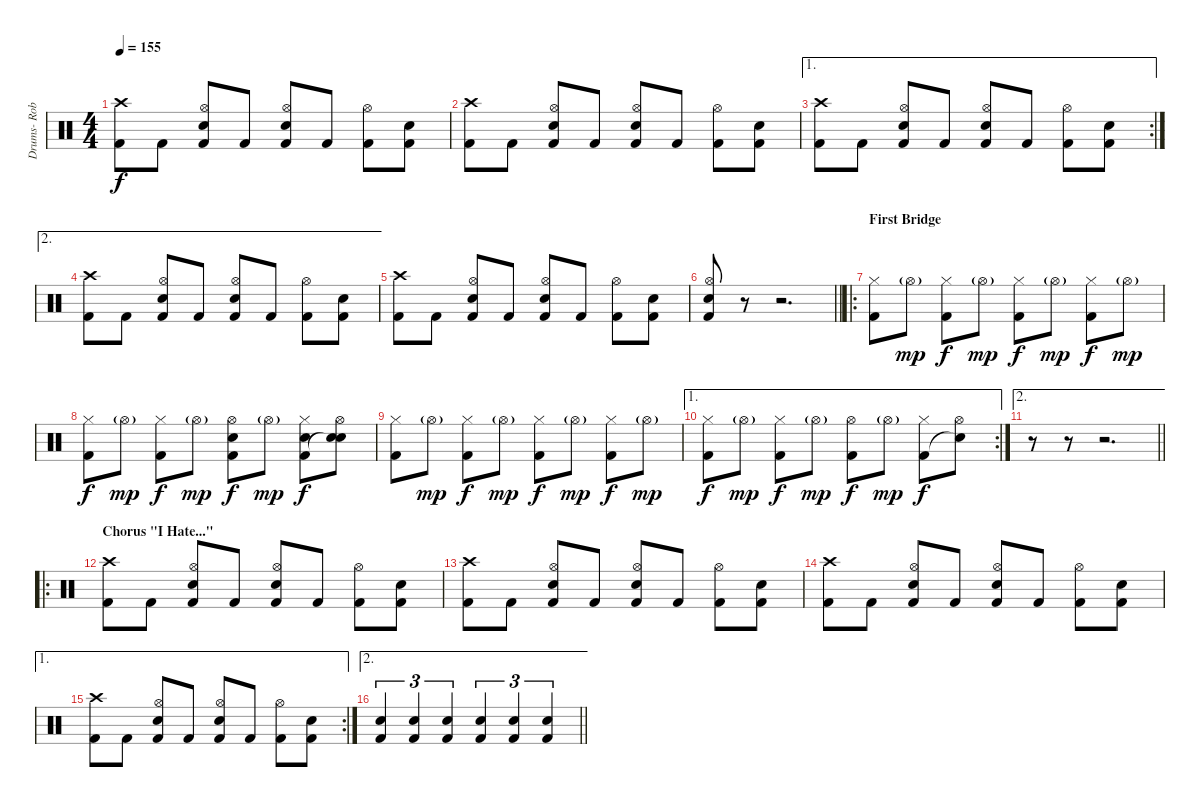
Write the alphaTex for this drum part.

\track ("Drums- Rob Rolfe" "Drums- Rob") {instrument percussion}
\staff {score}
\articulation defaults
\ts (4 4)
\tempo 155
\clef neutral
\ks c
("Crash high (hit)" "Kick (hit) 2").8{dy f} "Kick (hit) 2".8 ("Hi-Hat (open)" "Snare (hit) 2" "Kick (hit) 2").8 "Kick (hit) 2".8 ("Hi-Hat (open)" "Snare (hit) 2" "Kick (hit) 2").8 "Kick (hit) 2".8 ("Hi-Hat (open)" "Kick (hit) 2").8 ("Snare (hit) 2" "Kick (hit) 2").8 |
("Crash high (hit)" "Kick (hit) 2").8 "Kick (hit) 2".8 ("Hi-Hat (open)" "Snare (hit) 2" "Kick (hit) 2").8 "Kick (hit) 2".8 ("Hi-Hat (open)" "Snare (hit) 2" "Kick (hit) 2").8 "Kick (hit) 2".8 ("Hi-Hat (open)" "Kick (hit) 2").8 ("Snare (hit) 2" "Kick (hit) 2").8 |
\ae 1
\rc 2
("Crash high (hit)" "Kick (hit) 2").8 "Kick (hit) 2".8 ("Hi-Hat (open)" "Snare (hit) 2" "Kick (hit) 2").8 "Kick (hit) 2".8 ("Hi-Hat (open)" "Snare (hit) 2" "Kick (hit) 2").8 "Kick (hit) 2".8 ("Hi-Hat (open)" "Kick (hit) 2").8 ("Snare (hit) 2" "Kick (hit) 2").8 |
\ae 2
("Crash high (hit)" "Kick (hit) 2").8 "Kick (hit) 2".8 ("Hi-Hat (open)" "Snare (hit) 2" "Kick (hit) 2").8 "Kick (hit) 2".8 ("Hi-Hat (open)" "Snare (hit) 2" "Kick (hit) 2").8 "Kick (hit) 2".8 ("Hi-Hat (open)" "Kick (hit) 2").8 ("Snare (hit) 2" "Kick (hit) 2").8 |
("Crash high (hit)" "Kick (hit) 2").8 "Kick (hit) 2".8 ("Hi-Hat (open)" "Snare (hit) 2" "Kick (hit) 2").8 "Kick (hit) 2".8 ("Hi-Hat (open)" "Snare (hit) 2" "Kick (hit) 2").8 "Kick (hit) 2".8 ("Hi-Hat (open)" "Kick (hit) 2").8 ("Snare (hit) 2" "Kick (hit) 2").8 |
\barLineRight lightlight
("Hi-Hat (open)" "Snare (hit) 2" "Kick (hit) 2").8 r.8 r.2{d} |
\ro
\section ("" "First Bridge")
("Hi-Hat (closed)" "Kick (hit) 2").8 "Hi-Hat (open)"{g}.8{dy mp} ("Hi-Hat (closed)" "Kick (hit) 2").8{dy f} "Hi-Hat (open)"{g}.8{dy mp} ("Hi-Hat (closed)" "Kick (hit) 2").8{dy f} "Hi-Hat (open)"{g}.8{dy mp} ("Hi-Hat (closed)" "Kick (hit) 2").8{dy f} "Hi-Hat (open)"{g}.8{dy mp} |
("Hi-Hat (closed)" "Kick (hit) 2").8{dy f} "Hi-Hat (open)"{g}.8{dy mp} ("Hi-Hat (closed)" "Kick (hit) 2").8{dy f} "Hi-Hat (open)"{g}.8{dy mp} ("Hi-Hat (open)" "Snare (hit) 2" "Kick (hit) 2").8{dy f} "Hi-Hat (open)"{g}.8{dy mp} ("Hi-Hat (closed)" "Snare (hit) 2" "Kick (hit) 2").8{dy f} ("Hi-Hat (open)" "Snare (hit) 2" "Snare (hit)"{t}).8 |
("Hi-Hat (closed)" "Kick (hit) 2").8 "Hi-Hat (open)"{g}.8{dy mp} ("Hi-Hat (closed)" "Kick (hit) 2").8{dy f} "Hi-Hat (open)"{g}.8{dy mp} ("Hi-Hat (closed)" "Kick (hit) 2").8{dy f} "Hi-Hat (open)"{g}.8{dy mp} ("Hi-Hat (closed)" "Kick (hit) 2").8{dy f} "Hi-Hat (open)"{g}.8{dy mp} |
\ae 1
\rc 2
("Hi-Hat (closed)" "Kick (hit) 2").8{dy f} "Hi-Hat (open)"{g}.8{dy mp} ("Hi-Hat (closed)" "Kick (hit) 2").8{dy f} "Hi-Hat (open)"{g}.8{dy mp} ("Hi-Hat (open)" "Kick (hit) 2").8{dy f} "Hi-Hat (open)"{g}.8{dy mp} ("Hi-Hat (closed)" "Kick (hit) 2").8{dy f} ("Hi-Hat (open)" "Snare (hit)"{t}).8 |
\ae 2
\barLineRight lightlight
r.8 r.8 r.2{d} |
\ro
\section ("" "Chorus \"I Hate...\"")
("Crash high (hit)" "Kick (hit) 2").8 "Kick (hit) 2".8 ("Hi-Hat (open)" "Snare (hit) 2" "Kick (hit) 2").8 "Kick (hit) 2".8 ("Hi-Hat (open)" "Snare (hit) 2" "Kick (hit) 2").8 "Kick (hit) 2".8 ("Hi-Hat (open)" "Kick (hit) 2").8 ("Snare (hit) 2" "Kick (hit) 2").8 |
("Crash high (hit)" "Kick (hit) 2").8 "Kick (hit) 2".8 ("Hi-Hat (open)" "Snare (hit) 2" "Kick (hit) 2").8 "Kick (hit) 2".8 ("Hi-Hat (open)" "Snare (hit) 2" "Kick (hit) 2").8 "Kick (hit) 2".8 ("Hi-Hat (open)" "Kick (hit) 2").8 ("Snare (hit) 2" "Kick (hit) 2").8 |
("Crash high (hit)" "Kick (hit) 2").8 "Kick (hit) 2".8 ("Hi-Hat (open)" "Snare (hit) 2" "Kick (hit) 2").8 "Kick (hit) 2".8 ("Hi-Hat (open)" "Snare (hit) 2" "Kick (hit) 2").8 "Kick (hit) 2".8 ("Hi-Hat (open)" "Kick (hit) 2").8 ("Snare (hit) 2" "Kick (hit) 2").8 |
\ae 1
\rc 2
("Crash high (hit)" "Kick (hit) 2").8 "Kick (hit) 2".8 ("Hi-Hat (open)" "Snare (hit) 2" "Kick (hit) 2").8 "Kick (hit) 2".8 ("Hi-Hat (open)" "Snare (hit) 2" "Kick (hit) 2").8 "Kick (hit) 2".8 ("Hi-Hat (open)" "Kick (hit) 2").8 ("Snare (hit) 2" "Kick (hit) 2").8 |
\ae 2
\barLineRight lightlight
("Snare (hit) 2" "Kick (hit) 2").4{tu (3 2)} ("Snare (hit) 2" "Kick (hit) 2").4{tu (3 2)} ("Snare (hit) 2" "Kick (hit) 2").4{tu (3 2)} ("Snare (hit) 2" "Kick (hit) 2").4{tu (3 2)} ("Snare (hit) 2" "Kick (hit) 2").4{tu (3 2)} ("Snare (hit) 2" "Kick (hit) 2").4{tu (3 2)}
